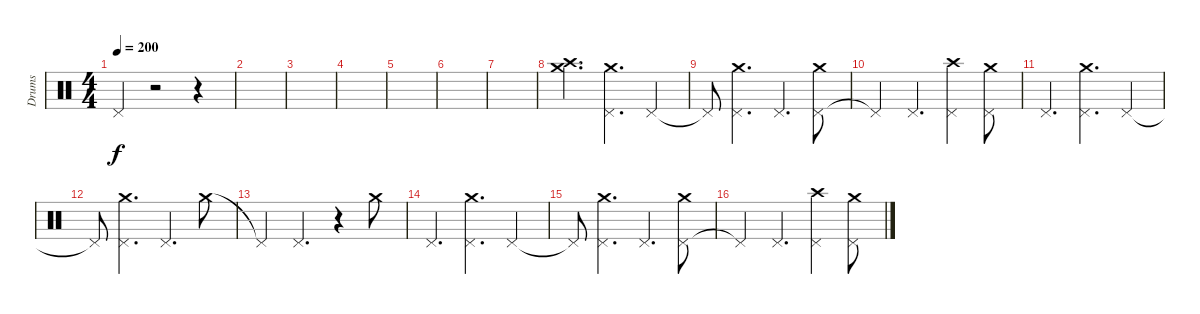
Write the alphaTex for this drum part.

\track ("Drums" "Drums") {instrument percussion}
\staff {score}
\articulation defaults
\ts (4 4)
\tempo 200
\clef neutral
\ks c "Pedal Hi-Hat (hit)"{t}.4{dy f}
r.2 r.4 |
|
|
|
|
|
|
("Crash high (hit)" "Crash medium (hit)").4{d} ("Pedal Hi-Hat (hit)" "Crash medium (hit)").4{d} "Pedal Hi-Hat (hit)".4 |
"Pedal Hi-Hat (hit)"{t}.8 ("Pedal Hi-Hat (hit)" "Crash medium (hit)").4{d} "Pedal Hi-Hat (hit)".4{d} ("Pedal Hi-Hat (hit)" "Crash medium (hit)").8 |
"Pedal Hi-Hat (hit)"{t}.4 "Pedal Hi-Hat (hit)".4{d} ("Pedal Hi-Hat (hit)" "Crash high (hit)").4 ("Pedal Hi-Hat (hit)" "Crash medium (hit)").8 |
"Pedal Hi-Hat (hit)".4{d} ("Pedal Hi-Hat (hit)" "Crash medium (hit)").4{d} "Pedal Hi-Hat (hit)".4 |
"Pedal Hi-Hat (hit)"{t}.8 ("Pedal Hi-Hat (hit)" "Crash medium (hit)").4{d} "Pedal Hi-Hat (hit)".4{d} "Crash medium (hit)".8 |
"Pedal Hi-Hat (hit)"{t}.4 "Pedal Hi-Hat (hit)".4{d} r.4 "Crash medium (hit)".8 |
"Pedal Hi-Hat (hit)".4{d} ("Pedal Hi-Hat (hit)" "Crash medium (hit)").4{d} "Pedal Hi-Hat (hit)".4 |
"Pedal Hi-Hat (hit)"{t}.8 ("Pedal Hi-Hat (hit)" "Crash medium (hit)").4{d} "Pedal Hi-Hat (hit)".4{d} ("Pedal Hi-Hat (hit)" "Crash medium (hit)").8 |
"Pedal Hi-Hat (hit)"{t}.4 "Pedal Hi-Hat (hit)".4{d} ("Pedal Hi-Hat (hit)" "Crash high (hit)").4 ("Pedal Hi-Hat (hit)" "Crash medium (hit)").8
